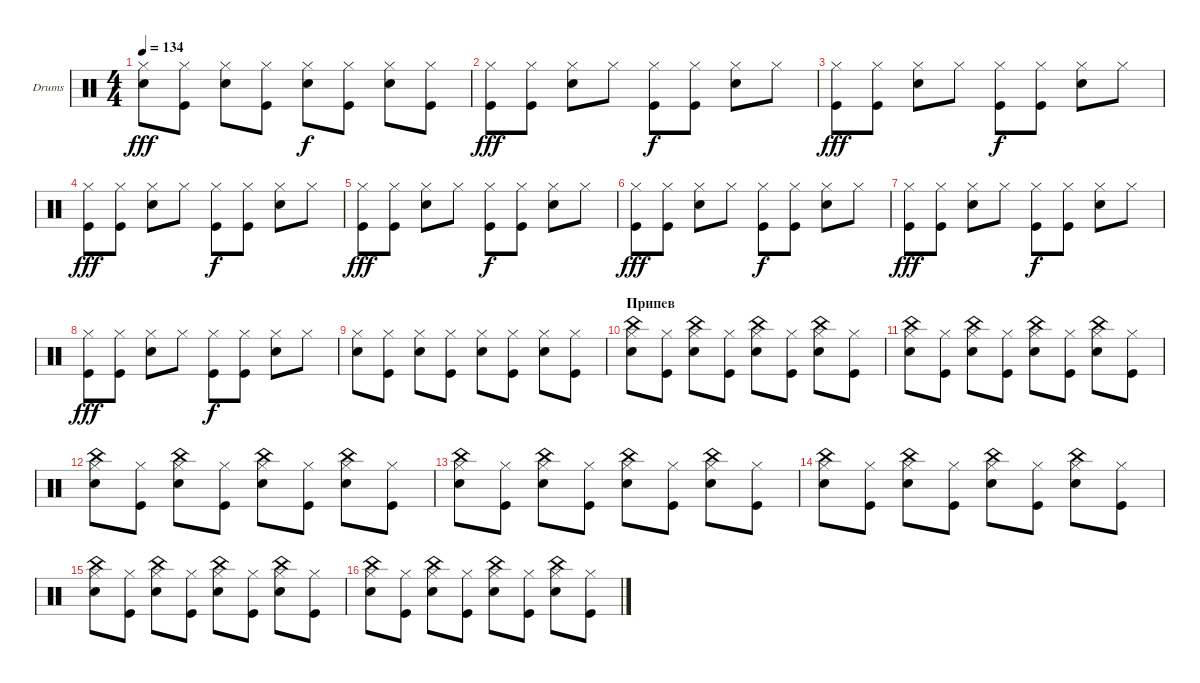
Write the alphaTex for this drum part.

\defaultSystemsLayout 4
\bracketExtendMode groupsimilarinstruments
\firstSystemTrackNameOrientation horizontal
\otherSystemsTrackNameOrientation horizontal
\track ("Drumkit" "Drums") {instrument percussion}
\staff {score}
\articulation defaults
\ts (4 4)
\tempo 134
\clef neutral
\ks c
("Hi-Hat (closed)" "Snare (hit) 2").8{dy fff} ("Hi-Hat (closed)" "Kick (hit)").8 ("Hi-Hat (closed)" "Snare (hit) 2").8 ("Hi-Hat (closed)" "Kick (hit)").8 ("Hi-Hat (closed)" "Snare (hit) 2").8{dy f} ("Hi-Hat (closed)" "Kick (hit)").8 ("Hi-Hat (closed)" "Snare (hit) 2").8 ("Hi-Hat (closed)" "Kick (hit)").8 |
("Hi-Hat (closed)" "Kick (hit)").8{dy fff} ("Hi-Hat (closed)" "Kick (hit)").8 ("Hi-Hat (closed)" "Snare (hit) 2").8 "Hi-Hat (closed)".8 ("Hi-Hat (closed)" "Kick (hit)").8{dy f} ("Hi-Hat (closed)" "Kick (hit)").8 ("Hi-Hat (closed)" "Snare (hit) 2").8 "Hi-Hat (closed)".8 |
("Hi-Hat (closed)" "Kick (hit)").8{dy fff} ("Hi-Hat (closed)" "Kick (hit)").8 ("Hi-Hat (closed)" "Snare (hit) 2").8 "Hi-Hat (closed)".8 ("Hi-Hat (closed)" "Kick (hit)").8{dy f} ("Hi-Hat (closed)" "Kick (hit)").8 ("Hi-Hat (closed)" "Snare (hit) 2").8 "Hi-Hat (closed)".8 |
("Hi-Hat (closed)" "Kick (hit)").8{dy fff} ("Hi-Hat (closed)" "Kick (hit)").8 ("Hi-Hat (closed)" "Snare (hit) 2").8 "Hi-Hat (closed)".8 ("Hi-Hat (closed)" "Kick (hit)").8{dy f} ("Hi-Hat (closed)" "Kick (hit)").8 ("Hi-Hat (closed)" "Snare (hit) 2").8 "Hi-Hat (closed)".8 |
("Hi-Hat (closed)" "Kick (hit)").8{dy fff} ("Hi-Hat (closed)" "Kick (hit)").8 ("Hi-Hat (closed)" "Snare (hit) 2").8 "Hi-Hat (closed)".8 ("Hi-Hat (closed)" "Kick (hit)").8{dy f} ("Hi-Hat (closed)" "Kick (hit)").8 ("Hi-Hat (closed)" "Snare (hit) 2").8 "Hi-Hat (closed)".8 |
("Hi-Hat (closed)" "Kick (hit)").8{dy fff} ("Hi-Hat (closed)" "Kick (hit)").8 ("Hi-Hat (closed)" "Snare (hit) 2").8 "Hi-Hat (closed)".8 ("Hi-Hat (closed)" "Kick (hit)").8{dy f} ("Hi-Hat (closed)" "Kick (hit)").8 ("Hi-Hat (closed)" "Snare (hit) 2").8 "Hi-Hat (closed)".8 |
("Hi-Hat (closed)" "Kick (hit)").8{dy fff} ("Hi-Hat (closed)" "Kick (hit)").8 ("Hi-Hat (closed)" "Snare (hit) 2").8 "Hi-Hat (closed)".8 ("Hi-Hat (closed)" "Kick (hit)").8{dy f} ("Hi-Hat (closed)" "Kick (hit)").8 ("Hi-Hat (closed)" "Snare (hit) 2").8 "Hi-Hat (closed)".8 |
("Hi-Hat (closed)" "Kick (hit)").8{dy fff} ("Hi-Hat (closed)" "Kick (hit)").8 ("Hi-Hat (closed)" "Snare (hit) 2").8 "Hi-Hat (closed)".8 ("Hi-Hat (closed)" "Kick (hit)").8{dy f} ("Hi-Hat (closed)" "Kick (hit)").8 ("Hi-Hat (closed)" "Snare (hit) 2").8 "Hi-Hat (closed)".8 |
("Snare (hit) 2" "Hi-Hat (closed)").8 ("Kick (hit)" "Hi-Hat (closed)").8 ("Snare (hit) 2" "Hi-Hat (closed)").8 ("Kick (hit)" "Hi-Hat (closed)").8 ("Snare (hit) 2" "Hi-Hat (closed)").8 ("Kick (hit)" "Hi-Hat (closed)").8 ("Snare (hit) 2" "Hi-Hat (closed)").8 ("Kick (hit)" "Hi-Hat (closed)").8 |
\section ("" "Припев")
("Snare (hit) 2" "Hi-Hat (closed)" "China (hit)").8 ("Kick (hit)" "Hi-Hat (closed)").8 ("Snare (hit) 2" "Hi-Hat (closed)" "China (hit)").8 ("Kick (hit)" "Hi-Hat (closed)").8 ("Snare (hit) 2" "Hi-Hat (closed)" "China (hit)").8 ("Kick (hit)" "Hi-Hat (closed)").8 ("Snare (hit) 2" "Hi-Hat (closed)" "China (hit)").8 ("Kick (hit)" "Hi-Hat (closed)").8 |
("Snare (hit) 2" "Hi-Hat (closed)" "China (hit)").8 ("Kick (hit)" "Hi-Hat (closed)").8 ("Snare (hit) 2" "Hi-Hat (closed)" "China (hit)").8 ("Kick (hit)" "Hi-Hat (closed)").8 ("Snare (hit) 2" "Hi-Hat (closed)" "China (hit)").8 ("Kick (hit)" "Hi-Hat (closed)").8 ("Snare (hit) 2" "Hi-Hat (closed)" "China (hit)").8 ("Kick (hit)" "Hi-Hat (closed)").8 |
("Snare (hit) 2" "Hi-Hat (closed)" "China (hit)").8 ("Kick (hit)" "Hi-Hat (closed)").8 ("Snare (hit) 2" "Hi-Hat (closed)" "China (hit)").8 ("Kick (hit)" "Hi-Hat (closed)").8 ("Snare (hit) 2" "Hi-Hat (closed)" "China (hit)").8 ("Kick (hit)" "Hi-Hat (closed)").8 ("Snare (hit) 2" "Hi-Hat (closed)" "China (hit)").8 ("Kick (hit)" "Hi-Hat (closed)").8 |
("Snare (hit) 2" "Hi-Hat (closed)" "China (hit)").8 ("Kick (hit)" "Hi-Hat (closed)").8 ("Snare (hit) 2" "Hi-Hat (closed)" "China (hit)").8 ("Kick (hit)" "Hi-Hat (closed)").8 ("Snare (hit) 2" "Hi-Hat (closed)" "China (hit)").8 ("Kick (hit)" "Hi-Hat (closed)").8 ("Snare (hit) 2" "Hi-Hat (closed)" "China (hit)").8 ("Kick (hit)" "Hi-Hat (closed)").8 |
("Snare (hit) 2" "Hi-Hat (closed)" "China (hit)").8 ("Kick (hit)" "Hi-Hat (closed)").8 ("Snare (hit) 2" "Hi-Hat (closed)" "China (hit)").8 ("Kick (hit)" "Hi-Hat (closed)").8 ("Snare (hit) 2" "Hi-Hat (closed)" "China (hit)").8 ("Kick (hit)" "Hi-Hat (closed)").8 ("Snare (hit) 2" "Hi-Hat (closed)" "China (hit)").8 ("Kick (hit)" "Hi-Hat (closed)").8 |
("Snare (hit) 2" "Hi-Hat (closed)" "China (hit)").8 ("Kick (hit)" "Hi-Hat (closed)").8 ("Snare (hit) 2" "Hi-Hat (closed)" "China (hit)").8 ("Kick (hit)" "Hi-Hat (closed)").8 ("Snare (hit) 2" "Hi-Hat (closed)" "China (hit)").8 ("Kick (hit)" "Hi-Hat (closed)").8 ("Snare (hit) 2" "Hi-Hat (closed)" "China (hit)").8 ("Kick (hit)" "Hi-Hat (closed)").8 |
("Snare (hit) 2" "Hi-Hat (closed)" "China (hit)").8 ("Kick (hit)" "Hi-Hat (closed)").8 ("Snare (hit) 2" "Hi-Hat (closed)" "China (hit)").8 ("Kick (hit)" "Hi-Hat (closed)").8 ("Snare (hit) 2" "Hi-Hat (closed)" "China (hit)").8 ("Kick (hit)" "Hi-Hat (closed)").8 ("Snare (hit) 2" "Hi-Hat (closed)" "China (hit)").8 ("Kick (hit)" "Hi-Hat (closed)").8
